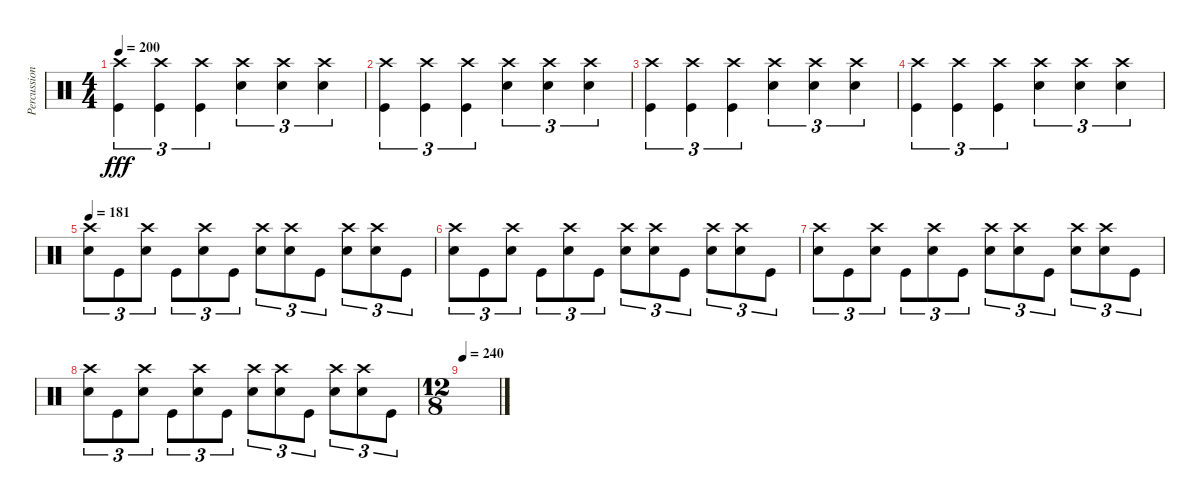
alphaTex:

\track ("Percussion" "Percussion") {instrument percussion}
\staff {score}
\articulation defaults
\ts (4 4)
\tempo 200
\clef neutral
\ks c
("Crash high (hit)" "Kick (hit)").4{tu (3 2) dy fff} ("Crash high (hit)" "Kick (hit)").4{tu (3 2)} ("Crash high (hit)" "Kick (hit)").4{tu (3 2)} ("Crash high (hit)" "Snare (hit) 2").4{tu (3 2)} ("Crash high (hit)" "Snare (hit) 2").4{tu (3 2)} ("Crash high (hit)" "Snare (hit) 2").4{tu (3 2)} |
("Crash high (hit)" "Kick (hit)").4{tu (3 2)} ("Crash high (hit)" "Kick (hit)").4{tu (3 2)} ("Crash high (hit)" "Kick (hit)").4{tu (3 2)} ("Crash high (hit)" "Snare (hit) 2").4{tu (3 2)} ("Crash high (hit)" "Snare (hit) 2").4{tu (3 2)} ("Crash high (hit)" "Snare (hit) 2").4{tu (3 2)} |
("Crash high (hit)" "Kick (hit)").4{tu (3 2)} ("Crash high (hit)" "Kick (hit)").4{tu (3 2)} ("Crash high (hit)" "Kick (hit)").4{tu (3 2)} ("Crash high (hit)" "Snare (hit) 2").4{tu (3 2)} ("Crash high (hit)" "Snare (hit) 2").4{tu (3 2)} ("Crash high (hit)" "Snare (hit) 2").4{tu (3 2)} |
("Crash high (hit)" "Kick (hit)").4{tu (3 2)} ("Crash high (hit)" "Kick (hit)").4{tu (3 2)} ("Crash high (hit)" "Kick (hit)").4{tu (3 2)} ("Crash high (hit)" "Snare (hit) 2").4{tu (3 2)} ("Crash high (hit)" "Snare (hit) 2").4{tu (3 2)} ("Crash high (hit)" "Snare (hit) 2").4{tu (3 2)} |
\tempo 181
("Crash high (hit)" "Snare (hit) 2").8{tu (3 2)} "Kick (hit)".8{tu (3 2)} ("Crash high (hit)" "Snare (hit) 2").8{tu (3 2)} "Kick (hit)".8{tu (3 2)} ("Crash high (hit)" "Snare (hit) 2").8{tu (3 2)} "Kick (hit)".8{tu (3 2)} ("Crash high (hit)" "Snare (hit) 2").8{tu (3 2)} ("Crash high (hit)" "Snare (hit) 2").8{tu (3 2)} "Kick (hit)".8{tu (3 2)} ("Crash high (hit)" "Snare (hit) 2").8{tu (3 2)} ("Crash high (hit)" "Snare (hit) 2").8{tu (3 2)} "Kick (hit)".8{tu (3 2)} |
("Crash high (hit)" "Snare (hit) 2").8{tu (3 2)} "Kick (hit)".8{tu (3 2)} ("Crash high (hit)" "Snare (hit) 2").8{tu (3 2)} "Kick (hit)".8{tu (3 2)} ("Crash high (hit)" "Snare (hit) 2").8{tu (3 2)} "Kick (hit)".8{tu (3 2)} ("Crash high (hit)" "Snare (hit) 2").8{tu (3 2)} ("Crash high (hit)" "Snare (hit) 2").8{tu (3 2)} "Kick (hit)".8{tu (3 2)} ("Crash high (hit)" "Snare (hit) 2").8{tu (3 2)} ("Crash high (hit)" "Snare (hit) 2").8{tu (3 2)} "Kick (hit)".8{tu (3 2)} |
("Crash high (hit)" "Snare (hit) 2").8{tu (3 2)} "Kick (hit)".8{tu (3 2)} ("Crash high (hit)" "Snare (hit) 2").8{tu (3 2)} "Kick (hit)".8{tu (3 2)} ("Crash high (hit)" "Snare (hit) 2").8{tu (3 2)} "Kick (hit)".8{tu (3 2)} ("Crash high (hit)" "Snare (hit) 2").8{tu (3 2)} ("Crash high (hit)" "Snare (hit) 2").8{tu (3 2)} "Kick (hit)".8{tu (3 2)} ("Crash high (hit)" "Snare (hit) 2").8{tu (3 2)} ("Crash high (hit)" "Snare (hit) 2").8{tu (3 2)} "Kick (hit)".8{tu (3 2)} |
("Crash high (hit)" "Snare (hit) 2").8{tu (3 2)} "Kick (hit)".8{tu (3 2)} ("Crash high (hit)" "Snare (hit) 2").8{tu (3 2)} "Kick (hit)".8{tu (3 2)} ("Crash high (hit)" "Snare (hit) 2").8{tu (3 2)} "Kick (hit)".8{tu (3 2)} ("Crash high (hit)" "Snare (hit) 2").8{tu (3 2)} ("Crash high (hit)" "Snare (hit) 2").8{tu (3 2)} "Kick (hit)".8{tu (3 2)} ("Crash high (hit)" "Snare (hit) 2").8{tu (3 2)} ("Crash high (hit)" "Snare (hit) 2").8{tu (3 2)} "Kick (hit)".8{tu (3 2)} |
\ts (12 8)
\tempo 240
